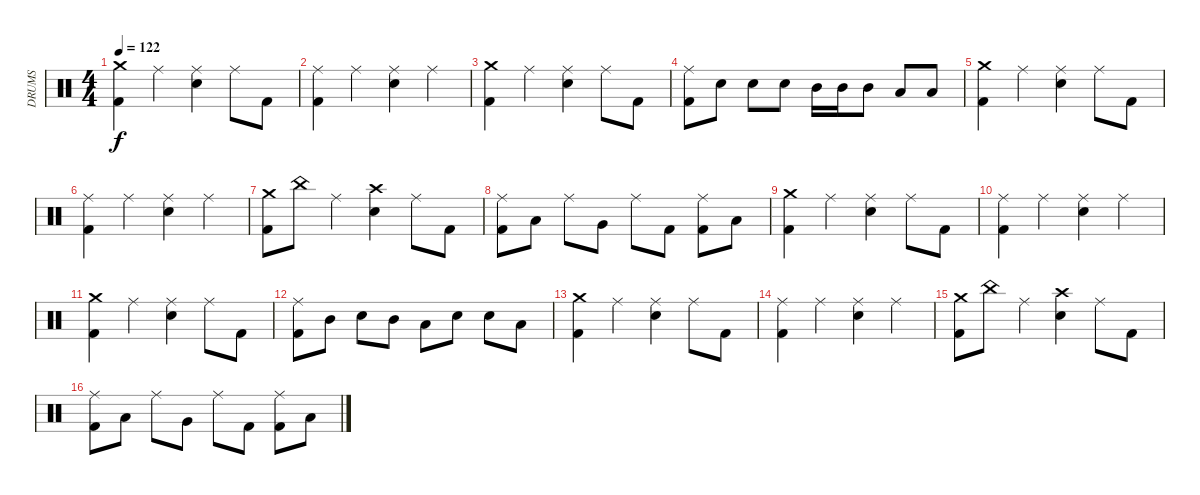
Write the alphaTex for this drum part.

\track ("DRUMS" "DRUMS") {instrument percussion}
\staff {score}
\articulation defaults
\ts (4 4)
\tempo 122
\clef neutral
\ks c
("Crash medium (hit)" "Kick (hit) 2").4{dy f} "Ride (middle)".4 ("Ride (middle)" "Snare (hit) 2").4 "Ride (middle)".8 "Kick (hit) 2".8 |
("Ride (middle)" "Kick (hit) 2").4 "Ride (middle)".4 ("Ride (middle)" "Snare (hit) 2").4 "Ride (middle)".4 |
("Crash medium (hit)" "Kick (hit) 2").4 "Ride (middle)".4 ("Ride (middle)" "Snare (hit) 2").4 "Ride (middle)".8 "Kick (hit) 2".8 |
("Ride (middle)" "Kick (hit) 2").8 "Snare (hit) 2".8 "Snare (hit) 2".8 "Snare (hit) 2".8 "Mid Tom (hit)".16 "Mid Tom (hit)".16 "Mid Tom (hit)".8 "Low Tom (hit)".8 "Low Tom (hit)".8 |
("Crash medium (hit)" "Kick (hit) 2").4 "Ride (middle)".4 ("Ride (middle)" "Snare (hit) 2").4 "Ride (middle)".8 "Kick (hit) 2".8 |
("Ride (middle)" "Kick (hit) 2").4 "Ride (middle)".4 ("Ride (middle)" "Snare (hit) 2").4 "Ride (middle)".4 |
("Crash medium (hit)" "Kick (hit) 2").8 "China (hit)".8 "Ride (middle)".4 ("Crash high (hit)" "Snare (hit) 2").4 "Ride (middle)".8 "Kick (hit) 2".8 |
("Ride (middle)" "Kick (hit) 2").8 "Low Tom (hit)".8 "Ride (middle)".8 "Very Low Tom (hit)".8 "Ride (middle)".8 "Kick (hit) 2".8 ("Ride (middle)" "Kick (hit) 2").8 "Low Floor Tom (hit)".8 |
("Crash medium (hit)" "Kick (hit) 2").4 "Ride (middle)".4 ("Ride (middle)" "Snare (hit) 2").4 "Ride (middle)".8 "Kick (hit) 2".8 |
("Ride (middle)" "Kick (hit) 2").4 "Ride (middle)".4 ("Ride (middle)" "Snare (hit) 2").4 "Ride (middle)".4 |
("Crash medium (hit)" "Kick (hit) 2").4 "Ride (middle)".4 ("Ride (middle)" "Snare (hit) 2").4 "Ride (middle)".8 "Kick (hit) 2".8 |
("Ride (middle)" "Kick (hit) 2").8 "Mid Tom (hit)".8 "Snare (hit) 2".8 "Mid Tom (hit)".8 "Low Tom (hit)".8 "Snare (hit) 2".8 "Snare (hit) 2".8 "Low Tom (hit)".8 |
("Crash medium (hit)" "Kick (hit) 2").4 "Ride (middle)".4 ("Ride (middle)" "Snare (hit) 2").4 "Ride (middle)".8 "Kick (hit) 2".8 |
("Ride (middle)" "Kick (hit) 2").4 "Ride (middle)".4 ("Ride (middle)" "Snare (hit) 2").4 "Ride (middle)".4 |
("Crash medium (hit)" "Kick (hit) 2").8 "China (hit)".8 "Ride (middle)".4 ("Crash high (hit)" "Snare (hit) 2").4 "Ride (middle)".8 "Kick (hit) 2".8 |
("Ride (middle)" "Kick (hit) 2").8 "Low Tom (hit)".8 "Ride (middle)".8 "Very Low Tom (hit)".8 "Ride (middle)".8 "Kick (hit) 2".8 ("Ride (middle)" "Kick (hit) 2").8 "Low Floor Tom (hit)".8
